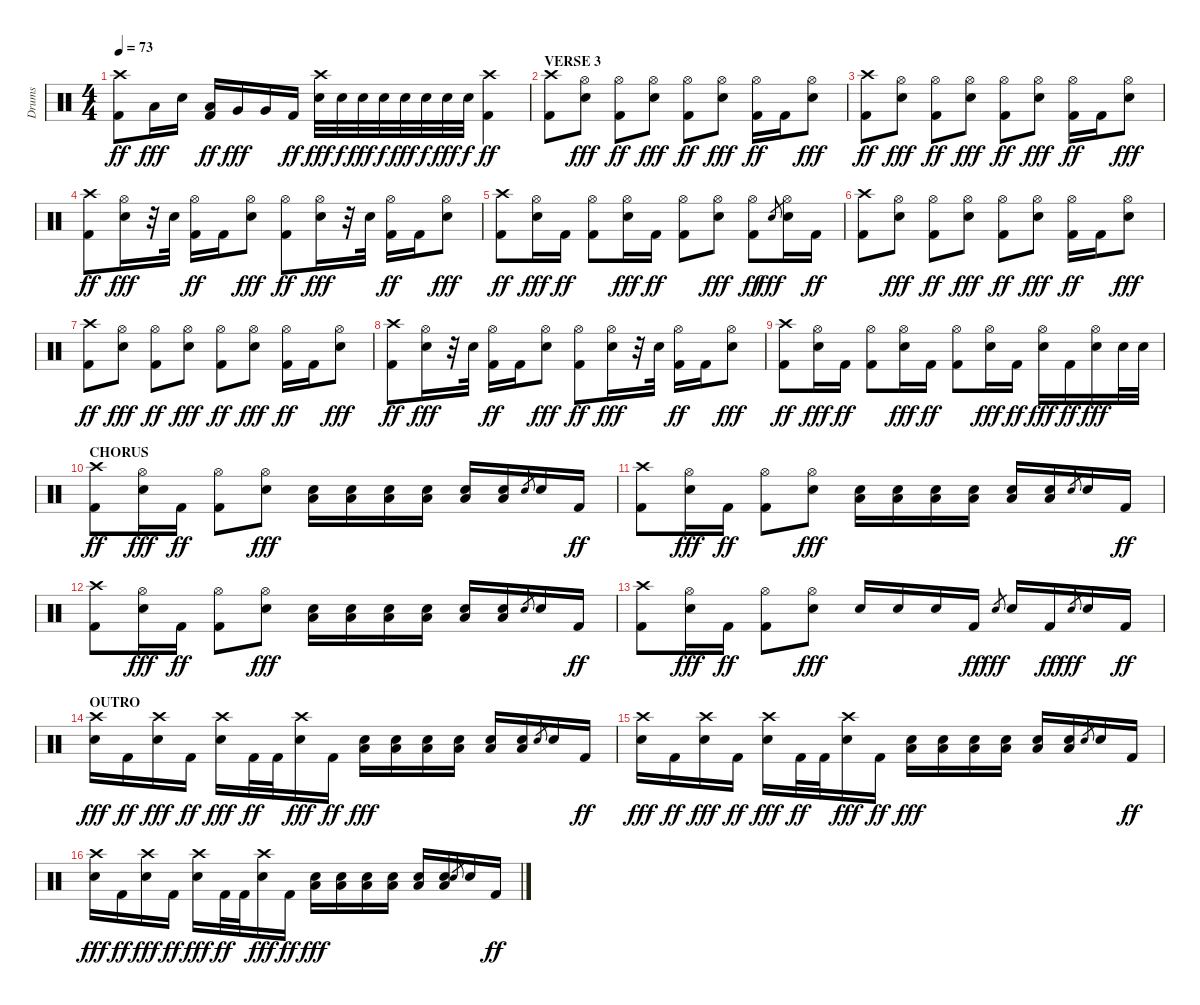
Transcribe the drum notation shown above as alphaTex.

\track ("Drums" "Drums") {instrument percussion}
\staff {score}
\articulation defaults
\ts (4 4)
\tempo 73
\clef neutral
\ks c
("Crash high (hit)" "Kick (hit) 2").8{dy ff} "Low Tom (hit)".16{dy fff} "Electric Snare (hit)".16 ("Low Tom (hit)" "Kick (hit) 2").16{dy ff} "Very Low Tom (hit)".16{dy fff} "Very Low Tom (hit)".16 "Kick (hit) 2".16{dy ff} ("Crash high (hit)" "Electric Snare (hit)").32{dy fff} "Electric Snare (hit)".32{dy f} "Electric Snare (hit)".32{dy fff} "Electric Snare (hit)".32{dy f} "Electric Snare (hit)".32{dy fff} "Electric Snare (hit)".32{dy f} "Electric Snare (hit)".32{dy fff} "Electric Snare (hit)".32{dy f} ("Crash high (hit)" "Kick (hit) 2").4{dy ff} |
\section ("" "VERSE 3")
("Crash high (hit)" "Kick (hit) 2").8 ("Hi-Hat (open)" "Electric Snare (hit)").8{dy fff} ("Hi-Hat (open)" "Kick (hit) 2").8{dy ff} ("Hi-Hat (open)" "Electric Snare (hit)").8{dy fff} ("Hi-Hat (open)" "Kick (hit) 2").8{dy ff} ("Hi-Hat (open)" "Electric Snare (hit)").8{dy fff} ("Hi-Hat (open)" "Kick (hit) 2").16{dy ff} "Kick (hit) 2".16 ("Hi-Hat (open)" "Electric Snare (hit)").8{dy fff} |
("Crash high (hit)" "Kick (hit) 2").8{dy ff} ("Hi-Hat (open)" "Electric Snare (hit)").8{dy fff} ("Hi-Hat (open)" "Kick (hit) 2").8{dy ff} ("Hi-Hat (open)" "Electric Snare (hit)").8{dy fff} ("Hi-Hat (open)" "Kick (hit) 2").8{dy ff} ("Hi-Hat (open)" "Electric Snare (hit)").8{dy fff} ("Hi-Hat (open)" "Kick (hit) 2").16{dy ff} "Kick (hit) 2".16 ("Hi-Hat (open)" "Electric Snare (hit)").8{dy fff} |
("Crash high (hit)" "Kick (hit) 2").8{dy ff} ("Hi-Hat (open)" "Electric Snare (hit)").16{dy fff} r.32 "Electric Snare (hit)".32 ("Hi-Hat (open)" "Kick (hit) 2").16{dy ff} "Kick (hit) 2".16 ("Hi-Hat (open)" "Electric Snare (hit)").8{dy fff} ("Hi-Hat (open)" "Kick (hit) 2").8{dy ff} ("Hi-Hat (open)" "Electric Snare (hit)").16{dy fff} r.32 "Electric Snare (hit)".32 ("Hi-Hat (open)" "Kick (hit) 2").16{dy ff} "Kick (hit) 2".16 ("Hi-Hat (open)" "Electric Snare (hit)").8{dy fff} |
("Crash high (hit)" "Kick (hit) 2").8{dy ff} ("Hi-Hat (open)" "Electric Snare (hit)").16{dy fff} "Kick (hit) 2".16{dy ff} ("Hi-Hat (open)" "Kick (hit) 2").8 ("Hi-Hat (open)" "Electric Snare (hit)").16{dy fff} "Kick (hit) 2".16{dy ff} ("Hi-Hat (open)" "Kick (hit) 2").8 ("Hi-Hat (open)" "Electric Snare (hit)").8{dy fff} ("Hi-Hat (open)" "Kick (hit) 2").8{dy ff} "Electric Snare (hit)".8{gr dy fff} ("Hi-Hat (open)" "Electric Snare (hit)").16 "Kick (hit) 2".16{dy ff} |
("Crash high (hit)" "Kick (hit) 2").8 ("Hi-Hat (open)" "Electric Snare (hit)").8{dy fff} ("Hi-Hat (open)" "Kick (hit) 2").8{dy ff} ("Hi-Hat (open)" "Electric Snare (hit)").8{dy fff} ("Hi-Hat (open)" "Kick (hit) 2").8{dy ff} ("Hi-Hat (open)" "Electric Snare (hit)").8{dy fff} ("Hi-Hat (open)" "Kick (hit) 2").16{dy ff} "Kick (hit) 2".16 ("Hi-Hat (open)" "Electric Snare (hit)").8{dy fff} |
("Crash high (hit)" "Kick (hit) 2").8{dy ff} ("Hi-Hat (open)" "Electric Snare (hit)").8{dy fff} ("Hi-Hat (open)" "Kick (hit) 2").8{dy ff} ("Hi-Hat (open)" "Electric Snare (hit)").8{dy fff} ("Hi-Hat (open)" "Kick (hit) 2").8{dy ff} ("Hi-Hat (open)" "Electric Snare (hit)").8{dy fff} ("Hi-Hat (open)" "Kick (hit) 2").16{dy ff} "Kick (hit) 2".16 ("Hi-Hat (open)" "Electric Snare (hit)").8{dy fff} |
("Crash high (hit)" "Kick (hit) 2").8{dy ff} ("Hi-Hat (open)" "Electric Snare (hit)").16{dy fff} r.32 "Electric Snare (hit)".32 ("Hi-Hat (open)" "Kick (hit) 2").16{dy ff} "Kick (hit) 2".16 ("Hi-Hat (open)" "Electric Snare (hit)").8{dy fff} ("Hi-Hat (open)" "Kick (hit) 2").8{dy ff} ("Hi-Hat (open)" "Electric Snare (hit)").16{dy fff} r.32 "Electric Snare (hit)".32 ("Hi-Hat (open)" "Kick (hit) 2").16{dy ff} "Kick (hit) 2".16 ("Hi-Hat (open)" "Electric Snare (hit)").8{dy fff} |
("Crash high (hit)" "Kick (hit) 2").8{dy ff} ("Hi-Hat (open)" "Electric Snare (hit)").16{dy fff} "Kick (hit) 2".16{dy ff} ("Hi-Hat (open)" "Kick (hit) 2").8 ("Hi-Hat (open)" "Electric Snare (hit)").16{dy fff} "Kick (hit) 2".16{dy ff} ("Hi-Hat (open)" "Kick (hit) 2").8 ("Hi-Hat (open)" "Electric Snare (hit)").16{dy fff} "Kick (hit) 2".16{dy ff} ("Hi-Hat (open)" "Electric Snare (hit)").16{dy fff} "Kick (hit) 2".16{dy ff} ("Hi-Hat (open)" "Electric Snare (hit)").16{dy fff} "Electric Snare (hit)".32 "Electric Snare (hit)".32 |
\section ("" "CHORUS")
("Crash high (hit)" "Kick (hit) 2").8{dy ff} ("Hi-Hat (open)" "Electric Snare (hit)").16{dy fff} "Kick (hit) 2".16{dy ff} ("Hi-Hat (open)" "Kick (hit) 2").8 ("Hi-Hat (open)" "Electric Snare (hit)").8{dy fff} ("Low Floor Tom (hit)" "Electric Snare (hit)").16 ("Low Floor Tom (hit)" "Electric Snare (hit)").16 ("Low Floor Tom (hit)" "Electric Snare (hit)").16 ("Low Floor Tom (hit)" "Electric Snare (hit)").16 ("Low Floor Tom (hit)" "Electric Snare (hit)").16 ("Low Floor Tom (hit)" "Electric Snare (hit)").16 "Electric Snare (hit)".8{gr} "Electric Snare (hit)".16 "Kick (hit) 2".16{dy ff} |
("Crash high (hit)" "Kick (hit) 2").8 ("Hi-Hat (open)" "Electric Snare (hit)").16{dy fff} "Kick (hit) 2".16{dy ff} ("Hi-Hat (open)" "Kick (hit) 2").8 ("Hi-Hat (open)" "Electric Snare (hit)").8{dy fff} ("Low Floor Tom (hit)" "Electric Snare (hit)").16 ("Low Floor Tom (hit)" "Electric Snare (hit)").16 ("Low Floor Tom (hit)" "Electric Snare (hit)").16 ("Low Floor Tom (hit)" "Electric Snare (hit)").16 ("Low Floor Tom (hit)" "Electric Snare (hit)").16 ("Low Floor Tom (hit)" "Electric Snare (hit)").16 "Electric Snare (hit)".8{gr} "Electric Snare (hit)".16 "Kick (hit) 2".16{dy ff} |
("Crash high (hit)" "Kick (hit) 2").8 ("Hi-Hat (open)" "Electric Snare (hit)").16{dy fff} "Kick (hit) 2".16{dy ff} ("Hi-Hat (open)" "Kick (hit) 2").8 ("Hi-Hat (open)" "Electric Snare (hit)").8{dy fff} ("Low Floor Tom (hit)" "Electric Snare (hit)").16 ("Low Floor Tom (hit)" "Electric Snare (hit)").16 ("Low Floor Tom (hit)" "Electric Snare (hit)").16 ("Low Floor Tom (hit)" "Electric Snare (hit)").16 ("Low Floor Tom (hit)" "Electric Snare (hit)").16 ("Low Floor Tom (hit)" "Electric Snare (hit)").16 "Electric Snare (hit)".8{gr} "Electric Snare (hit)".16 "Kick (hit) 2".16{dy ff} |
("Crash high (hit)" "Kick (hit) 2").8 ("Hi-Hat (open)" "Electric Snare (hit)").16{dy fff} "Kick (hit) 2".16{dy ff} ("Hi-Hat (open)" "Kick (hit) 2").8 ("Hi-Hat (open)" "Electric Snare (hit)").8{dy fff} "Electric Snare (hit)".16 "Electric Snare (hit)".16 "Electric Snare (hit)".16 "Kick (hit) 2".16{dy ff} "Electric Snare (hit)".8{gr dy fff} "Electric Snare (hit)".16 "Kick (hit) 2".16{dy ff} "Electric Snare (hit)".8{gr dy fff} "Electric Snare (hit)".16 "Kick (hit) 2".16{dy ff} |
\section ("" "OUTRO")
("Crash high (hit)" "Electric Snare (hit)").16{dy fff} "Kick (hit) 2".16{dy ff} ("Crash high (hit)" "Electric Snare (hit)").16{dy fff} "Kick (hit) 2".16{dy ff} ("Crash high (hit)" "Electric Snare (hit)").16{dy fff} "Kick (hit) 2".32{dy ff} "Kick (hit) 2".32 ("Crash high (hit)" "Electric Snare (hit)").16{dy fff} "Kick (hit) 2".16{dy ff} ("Low Floor Tom (hit)" "Electric Snare (hit)").16{dy fff} ("Low Floor Tom (hit)" "Electric Snare (hit)").16 ("Low Floor Tom (hit)" "Electric Snare (hit)").16 ("Low Floor Tom (hit)" "Electric Snare (hit)").16 ("Low Floor Tom (hit)" "Electric Snare (hit)").16 ("Low Floor Tom (hit)" "Electric Snare (hit)").16 "Electric Snare (hit)".8{gr} "Electric Snare (hit)".16 "Kick (hit) 2".16{dy ff} |
("Crash high (hit)" "Electric Snare (hit)").16{dy fff} "Kick (hit) 2".16{dy ff} ("Crash high (hit)" "Electric Snare (hit)").16{dy fff} "Kick (hit) 2".16{dy ff} ("Crash high (hit)" "Electric Snare (hit)").16{dy fff} "Kick (hit) 2".32{dy ff} "Kick (hit) 2".32 ("Crash high (hit)" "Electric Snare (hit)").16{dy fff} "Kick (hit) 2".16{dy ff} ("Low Floor Tom (hit)" "Electric Snare (hit)").16{dy fff} ("Low Floor Tom (hit)" "Electric Snare (hit)").16 ("Low Floor Tom (hit)" "Electric Snare (hit)").16 ("Low Floor Tom (hit)" "Electric Snare (hit)").16 ("Low Floor Tom (hit)" "Electric Snare (hit)").16 ("Low Floor Tom (hit)" "Electric Snare (hit)").16 "Electric Snare (hit)".8{gr} "Electric Snare (hit)".16 "Kick (hit) 2".16{dy ff} |
("Crash high (hit)" "Electric Snare (hit)").16{dy fff volume 0} "Kick (hit) 2".16{dy ff} ("Crash high (hit)" "Electric Snare (hit)").16{dy fff} "Kick (hit) 2".16{dy ff} ("Crash high (hit)" "Electric Snare (hit)").16{dy fff} "Kick (hit) 2".32{dy ff} "Kick (hit) 2".32 ("Crash high (hit)" "Electric Snare (hit)").16{dy fff} "Kick (hit) 2".16{dy ff} ("Low Floor Tom (hit)" "Electric Snare (hit)").16{dy fff} ("Low Floor Tom (hit)" "Electric Snare (hit)").16 ("Low Floor Tom (hit)" "Electric Snare (hit)").16 ("Low Floor Tom (hit)" "Electric Snare (hit)").16 ("Low Floor Tom (hit)" "Electric Snare (hit)").16 ("Low Floor Tom (hit)" "Electric Snare (hit)").16 "Electric Snare (hit)".8{gr} "Electric Snare (hit)".16 "Kick (hit) 2".16{dy ff}
